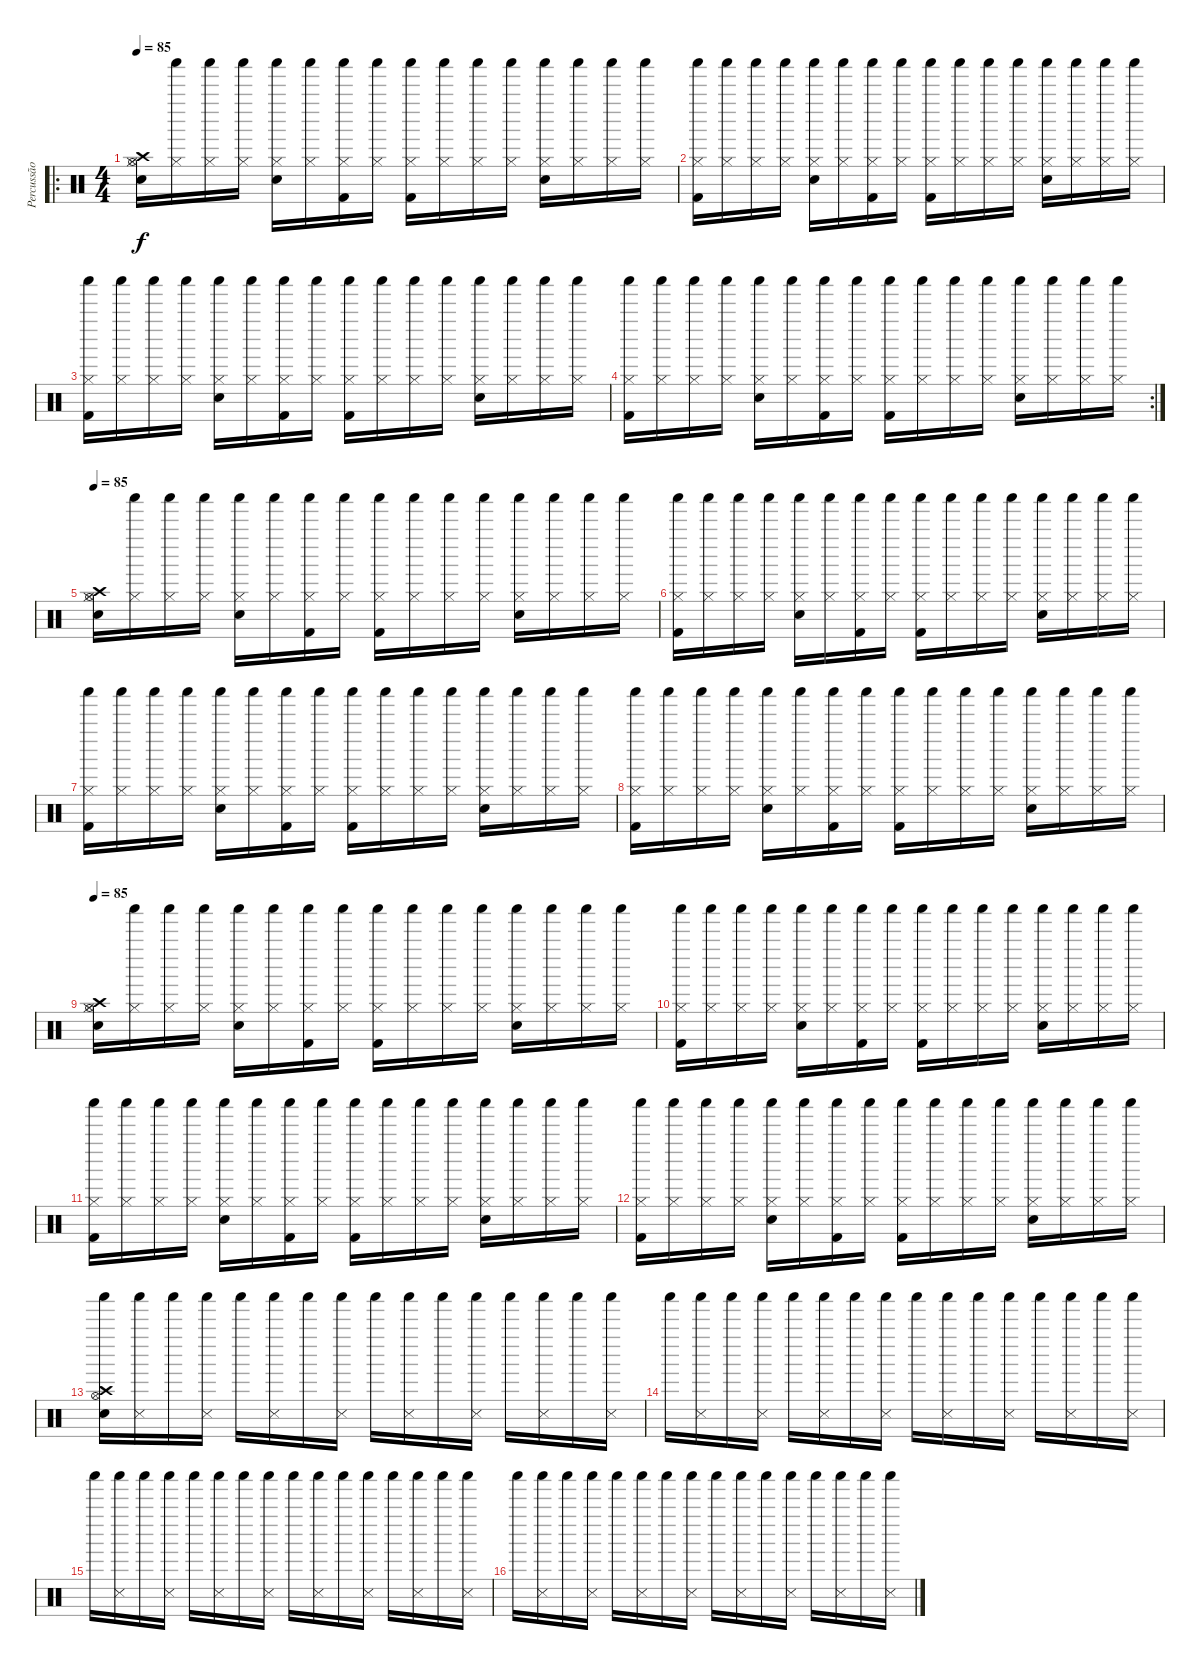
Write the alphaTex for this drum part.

\track ("Percussão" "Percussão") {instrument percussion}
\staff {score}
\articulation defaults
\ro
\ts (4 4)
\tempo 85
\clef neutral
\ks c
("Hi-Hat (open)" "Crash high (hit)" "Hi-Hat (closed)" "Snare (hit) 2").16{dy f} ("Shaker (hit)" "Hi-Hat (closed)").16 ("Shaker (hit)" "Hi-Hat (closed)").16 ("Shaker (hit)" "Hi-Hat (closed)").16 ("Shaker (hit)" "Hi-Hat (closed)" "Snare (hit) 2").16 ("Shaker (hit)" "Hi-Hat (closed)").16 ("Shaker (hit)" "Hi-Hat (closed)" "Kick (hit) 2").16 ("Shaker (hit)" "Hi-Hat (closed)").16 ("Shaker (hit)" "Hi-Hat (closed)" "Kick (hit) 2").16 ("Shaker (hit)" "Hi-Hat (closed)").16 ("Shaker (hit)" "Hi-Hat (closed)").16 ("Shaker (hit)" "Hi-Hat (closed)").16 ("Shaker (hit)" "Hi-Hat (closed)" "Snare (hit) 2").16 ("Shaker (hit)" "Hi-Hat (closed)").16 ("Shaker (hit)" "Hi-Hat (closed)").16 ("Shaker (hit)" "Hi-Hat (closed)").16 |
("Shaker (hit)" "Hi-Hat (closed)" "Kick (hit) 2").16 ("Shaker (hit)" "Hi-Hat (closed)").16 ("Shaker (hit)" "Hi-Hat (closed)").16 ("Shaker (hit)" "Hi-Hat (closed)").16 ("Shaker (hit)" "Hi-Hat (closed)" "Snare (hit) 2").16 ("Shaker (hit)" "Hi-Hat (closed)").16 ("Shaker (hit)" "Hi-Hat (closed)" "Kick (hit) 2").16 ("Shaker (hit)" "Hi-Hat (closed)").16 ("Shaker (hit)" "Hi-Hat (closed)" "Kick (hit) 2").16 ("Shaker (hit)" "Hi-Hat (closed)").16 ("Shaker (hit)" "Hi-Hat (closed)").16 ("Shaker (hit)" "Hi-Hat (closed)").16 ("Shaker (hit)" "Hi-Hat (closed)" "Snare (hit) 2").16 ("Shaker (hit)" "Hi-Hat (closed)").16 ("Shaker (hit)" "Hi-Hat (closed)").16 ("Shaker (hit)" "Hi-Hat (closed)").16 |
("Shaker (hit)" "Hi-Hat (closed)" "Kick (hit) 2").16 ("Shaker (hit)" "Hi-Hat (closed)").16 ("Shaker (hit)" "Hi-Hat (closed)").16 ("Shaker (hit)" "Hi-Hat (closed)").16 ("Shaker (hit)" "Hi-Hat (closed)" "Snare (hit) 2").16 ("Shaker (hit)" "Hi-Hat (closed)").16 ("Shaker (hit)" "Hi-Hat (closed)" "Kick (hit) 2").16 ("Shaker (hit)" "Hi-Hat (closed)").16 ("Shaker (hit)" "Hi-Hat (closed)" "Kick (hit) 2").16 ("Shaker (hit)" "Hi-Hat (closed)").16 ("Shaker (hit)" "Hi-Hat (closed)").16 ("Shaker (hit)" "Hi-Hat (closed)").16 ("Shaker (hit)" "Hi-Hat (closed)" "Snare (hit) 2").16 ("Shaker (hit)" "Hi-Hat (closed)").16 ("Shaker (hit)" "Hi-Hat (closed)").16 ("Shaker (hit)" "Hi-Hat (closed)").16 |
\rc 2
("Shaker (hit)" "Hi-Hat (closed)" "Kick (hit) 2").16 ("Shaker (hit)" "Hi-Hat (closed)").16 ("Shaker (hit)" "Hi-Hat (closed)").16 ("Shaker (hit)" "Hi-Hat (closed)").16 ("Shaker (hit)" "Hi-Hat (closed)" "Snare (hit) 2").16 ("Shaker (hit)" "Hi-Hat (closed)").16 ("Shaker (hit)" "Hi-Hat (closed)" "Kick (hit) 2").16 ("Shaker (hit)" "Hi-Hat (closed)").16 ("Shaker (hit)" "Hi-Hat (closed)" "Kick (hit) 2").16 ("Shaker (hit)" "Hi-Hat (closed)").16 ("Shaker (hit)" "Hi-Hat (closed)").16 ("Shaker (hit)" "Hi-Hat (closed)").16 ("Shaker (hit)" "Hi-Hat (closed)" "Snare (hit) 2").16 ("Shaker (hit)" "Hi-Hat (closed)").16 ("Shaker (hit)" "Hi-Hat (closed)").16 ("Shaker (hit)" "Hi-Hat (closed)").16 |
\tempo 85
("Hi-Hat (open)" "Crash high (hit)" "Hi-Hat (closed)" "Snare (hit) 2").16 ("Shaker (hit)" "Hi-Hat (closed)").16 ("Shaker (hit)" "Hi-Hat (closed)").16 ("Shaker (hit)" "Hi-Hat (closed)").16 ("Shaker (hit)" "Hi-Hat (closed)" "Snare (hit) 2").16 ("Shaker (hit)" "Hi-Hat (closed)").16 ("Shaker (hit)" "Hi-Hat (closed)" "Kick (hit) 2").16 ("Shaker (hit)" "Hi-Hat (closed)").16 ("Shaker (hit)" "Hi-Hat (closed)" "Kick (hit) 2").16 ("Shaker (hit)" "Hi-Hat (closed)").16 ("Shaker (hit)" "Hi-Hat (closed)").16 ("Shaker (hit)" "Hi-Hat (closed)").16 ("Shaker (hit)" "Hi-Hat (closed)" "Snare (hit) 2").16 ("Shaker (hit)" "Hi-Hat (closed)").16 ("Shaker (hit)" "Hi-Hat (closed)").16 ("Shaker (hit)" "Hi-Hat (closed)").16 |
("Shaker (hit)" "Hi-Hat (closed)" "Kick (hit) 2").16 ("Shaker (hit)" "Hi-Hat (closed)").16 ("Shaker (hit)" "Hi-Hat (closed)").16 ("Shaker (hit)" "Hi-Hat (closed)").16 ("Shaker (hit)" "Hi-Hat (closed)" "Snare (hit) 2").16 ("Shaker (hit)" "Hi-Hat (closed)").16 ("Shaker (hit)" "Hi-Hat (closed)" "Kick (hit) 2").16 ("Shaker (hit)" "Hi-Hat (closed)").16 ("Shaker (hit)" "Hi-Hat (closed)" "Kick (hit) 2").16 ("Shaker (hit)" "Hi-Hat (closed)").16 ("Shaker (hit)" "Hi-Hat (closed)").16 ("Shaker (hit)" "Hi-Hat (closed)").16 ("Shaker (hit)" "Hi-Hat (closed)" "Snare (hit) 2").16 ("Shaker (hit)" "Hi-Hat (closed)").16 ("Shaker (hit)" "Hi-Hat (closed)").16 ("Shaker (hit)" "Hi-Hat (closed)").16 |
("Shaker (hit)" "Hi-Hat (closed)" "Kick (hit) 2").16 ("Shaker (hit)" "Hi-Hat (closed)").16 ("Shaker (hit)" "Hi-Hat (closed)").16 ("Shaker (hit)" "Hi-Hat (closed)").16 ("Shaker (hit)" "Hi-Hat (closed)" "Snare (hit) 2").16 ("Shaker (hit)" "Hi-Hat (closed)").16 ("Shaker (hit)" "Hi-Hat (closed)" "Kick (hit) 2").16 ("Shaker (hit)" "Hi-Hat (closed)").16 ("Shaker (hit)" "Hi-Hat (closed)" "Kick (hit) 2").16 ("Shaker (hit)" "Hi-Hat (closed)").16 ("Shaker (hit)" "Hi-Hat (closed)").16 ("Shaker (hit)" "Hi-Hat (closed)").16 ("Shaker (hit)" "Hi-Hat (closed)" "Snare (hit) 2").16 ("Shaker (hit)" "Hi-Hat (closed)").16 ("Shaker (hit)" "Hi-Hat (closed)").16 ("Shaker (hit)" "Hi-Hat (closed)").16 |
("Shaker (hit)" "Hi-Hat (closed)" "Kick (hit) 2").16 ("Shaker (hit)" "Hi-Hat (closed)").16 ("Shaker (hit)" "Hi-Hat (closed)").16 ("Shaker (hit)" "Hi-Hat (closed)").16 ("Shaker (hit)" "Hi-Hat (closed)" "Snare (hit) 2").16 ("Shaker (hit)" "Hi-Hat (closed)").16 ("Shaker (hit)" "Hi-Hat (closed)" "Kick (hit) 2").16 ("Shaker (hit)" "Hi-Hat (closed)").16 ("Shaker (hit)" "Hi-Hat (closed)" "Kick (hit) 2").16 ("Shaker (hit)" "Hi-Hat (closed)").16 ("Shaker (hit)" "Hi-Hat (closed)").16 ("Shaker (hit)" "Hi-Hat (closed)").16 ("Shaker (hit)" "Hi-Hat (closed)" "Snare (hit) 2").16 ("Shaker (hit)" "Hi-Hat (closed)").16 ("Shaker (hit)" "Hi-Hat (closed)").16 ("Shaker (hit)" "Hi-Hat (closed)").16 |
\tempo 85
("Hi-Hat (open)" "Crash high (hit)" "Hi-Hat (closed)" "Snare (hit) 2").16 ("Shaker (hit)" "Hi-Hat (closed)").16 ("Shaker (hit)" "Hi-Hat (closed)").16 ("Shaker (hit)" "Hi-Hat (closed)").16 ("Shaker (hit)" "Hi-Hat (closed)" "Snare (hit) 2").16 ("Shaker (hit)" "Hi-Hat (closed)").16 ("Shaker (hit)" "Hi-Hat (closed)" "Kick (hit) 2").16 ("Shaker (hit)" "Hi-Hat (closed)").16 ("Shaker (hit)" "Hi-Hat (closed)" "Kick (hit) 2").16 ("Shaker (hit)" "Hi-Hat (closed)").16 ("Shaker (hit)" "Hi-Hat (closed)").16 ("Shaker (hit)" "Hi-Hat (closed)").16 ("Shaker (hit)" "Hi-Hat (closed)" "Snare (hit) 2").16 ("Shaker (hit)" "Hi-Hat (closed)").16 ("Shaker (hit)" "Hi-Hat (closed)").16 ("Shaker (hit)" "Hi-Hat (closed)").16 |
("Shaker (hit)" "Hi-Hat (closed)" "Kick (hit) 2").16 ("Shaker (hit)" "Hi-Hat (closed)").16 ("Shaker (hit)" "Hi-Hat (closed)").16 ("Shaker (hit)" "Hi-Hat (closed)").16 ("Shaker (hit)" "Hi-Hat (closed)" "Snare (hit) 2").16 ("Shaker (hit)" "Hi-Hat (closed)").16 ("Shaker (hit)" "Hi-Hat (closed)" "Kick (hit) 2").16 ("Shaker (hit)" "Hi-Hat (closed)").16 ("Shaker (hit)" "Hi-Hat (closed)" "Kick (hit) 2").16 ("Shaker (hit)" "Hi-Hat (closed)").16 ("Shaker (hit)" "Hi-Hat (closed)").16 ("Shaker (hit)" "Hi-Hat (closed)").16 ("Shaker (hit)" "Hi-Hat (closed)" "Snare (hit) 2").16 ("Shaker (hit)" "Hi-Hat (closed)").16 ("Shaker (hit)" "Hi-Hat (closed)").16 ("Shaker (hit)" "Hi-Hat (closed)").16 |
("Shaker (hit)" "Hi-Hat (closed)" "Kick (hit) 2").16 ("Shaker (hit)" "Hi-Hat (closed)").16 ("Shaker (hit)" "Hi-Hat (closed)").16 ("Shaker (hit)" "Hi-Hat (closed)").16 ("Shaker (hit)" "Hi-Hat (closed)" "Snare (hit) 2").16 ("Shaker (hit)" "Hi-Hat (closed)").16 ("Shaker (hit)" "Hi-Hat (closed)" "Kick (hit) 2").16 ("Shaker (hit)" "Hi-Hat (closed)").16 ("Shaker (hit)" "Hi-Hat (closed)" "Kick (hit) 2").16 ("Shaker (hit)" "Hi-Hat (closed)").16 ("Shaker (hit)" "Hi-Hat (closed)").16 ("Shaker (hit)" "Hi-Hat (closed)").16 ("Shaker (hit)" "Hi-Hat (closed)" "Snare (hit) 2").16 ("Shaker (hit)" "Hi-Hat (closed)").16 ("Shaker (hit)" "Hi-Hat (closed)").16 ("Shaker (hit)" "Hi-Hat (closed)").16 |
("Shaker (hit)" "Hi-Hat (closed)" "Kick (hit) 2").16 ("Shaker (hit)" "Hi-Hat (closed)").16 ("Shaker (hit)" "Hi-Hat (closed)").16 ("Shaker (hit)" "Hi-Hat (closed)").16 ("Shaker (hit)" "Hi-Hat (closed)" "Snare (hit) 2").16 ("Shaker (hit)" "Hi-Hat (closed)").16 ("Shaker (hit)" "Hi-Hat (closed)" "Kick (hit) 2").16 ("Shaker (hit)" "Hi-Hat (closed)").16 ("Shaker (hit)" "Hi-Hat (closed)" "Kick (hit) 2").16 ("Shaker (hit)" "Hi-Hat (closed)").16 ("Shaker (hit)" "Hi-Hat (closed)").16 ("Shaker (hit)" "Hi-Hat (closed)").16 ("Shaker (hit)" "Hi-Hat (closed)" "Snare (hit) 2").16 ("Shaker (hit)" "Hi-Hat (closed)").16 ("Shaker (hit)" "Hi-Hat (closed)").16 ("Shaker (hit)" "Hi-Hat (closed)").16 |
("Crash high (hit)" "Hi-Hat (open)" "Snare (hit) 2" "Shaker (hit)").16 ("Shaker (hit)" "Snare (side stick) 3").16 "Shaker (hit)".16 ("Shaker (hit)" "Snare (side stick) 3").16 "Shaker (hit)".16 ("Shaker (hit)" "Snare (side stick) 3").16 "Shaker (hit)".16 ("Shaker (hit)" "Snare (side stick) 3").16 "Shaker (hit)".16 ("Shaker (hit)" "Snare (side stick) 3").16 "Shaker (hit)".16 ("Shaker (hit)" "Snare (side stick) 3").16 "Shaker (hit)".16 ("Shaker (hit)" "Snare (side stick) 3").16 "Shaker (hit)".16 ("Shaker (hit)" "Snare (side stick) 3").16 |
"Shaker (hit)".16 ("Shaker (hit)" "Snare (side stick) 3").16 "Shaker (hit)".16 ("Shaker (hit)" "Snare (side stick) 3").16 "Shaker (hit)".16 ("Shaker (hit)" "Snare (side stick) 3").16 "Shaker (hit)".16 ("Shaker (hit)" "Snare (side stick) 3").16 "Shaker (hit)".16 ("Shaker (hit)" "Snare (side stick) 3").16 "Shaker (hit)".16 ("Shaker (hit)" "Snare (side stick) 3").16 "Shaker (hit)".16 ("Shaker (hit)" "Snare (side stick) 3").16 "Shaker (hit)".16 ("Shaker (hit)" "Snare (side stick) 3").16 |
"Shaker (hit)".16 ("Shaker (hit)" "Snare (side stick) 3").16 "Shaker (hit)".16 ("Shaker (hit)" "Snare (side stick) 3").16 "Shaker (hit)".16 ("Shaker (hit)" "Snare (side stick) 3").16 "Shaker (hit)".16 ("Shaker (hit)" "Snare (side stick) 3").16 "Shaker (hit)".16 ("Shaker (hit)" "Snare (side stick) 3").16 "Shaker (hit)".16 ("Shaker (hit)" "Snare (side stick) 3").16 "Shaker (hit)".16 ("Shaker (hit)" "Snare (side stick) 3").16 "Shaker (hit)".16 ("Shaker (hit)" "Snare (side stick) 3").16 |
"Shaker (hit)".16 ("Shaker (hit)" "Snare (side stick) 3").16 "Shaker (hit)".16 ("Shaker (hit)" "Snare (side stick) 3").16 "Shaker (hit)".16 ("Shaker (hit)" "Snare (side stick) 3").16 "Shaker (hit)".16 ("Shaker (hit)" "Snare (side stick) 3").16 "Shaker (hit)".16 ("Shaker (hit)" "Snare (side stick) 3").16 "Shaker (hit)".16 ("Shaker (hit)" "Snare (side stick) 3").16 "Shaker (hit)".16 ("Shaker (hit)" "Snare (side stick) 3").16 "Shaker (hit)".16 ("Shaker (hit)" "Snare (side stick) 3").16
